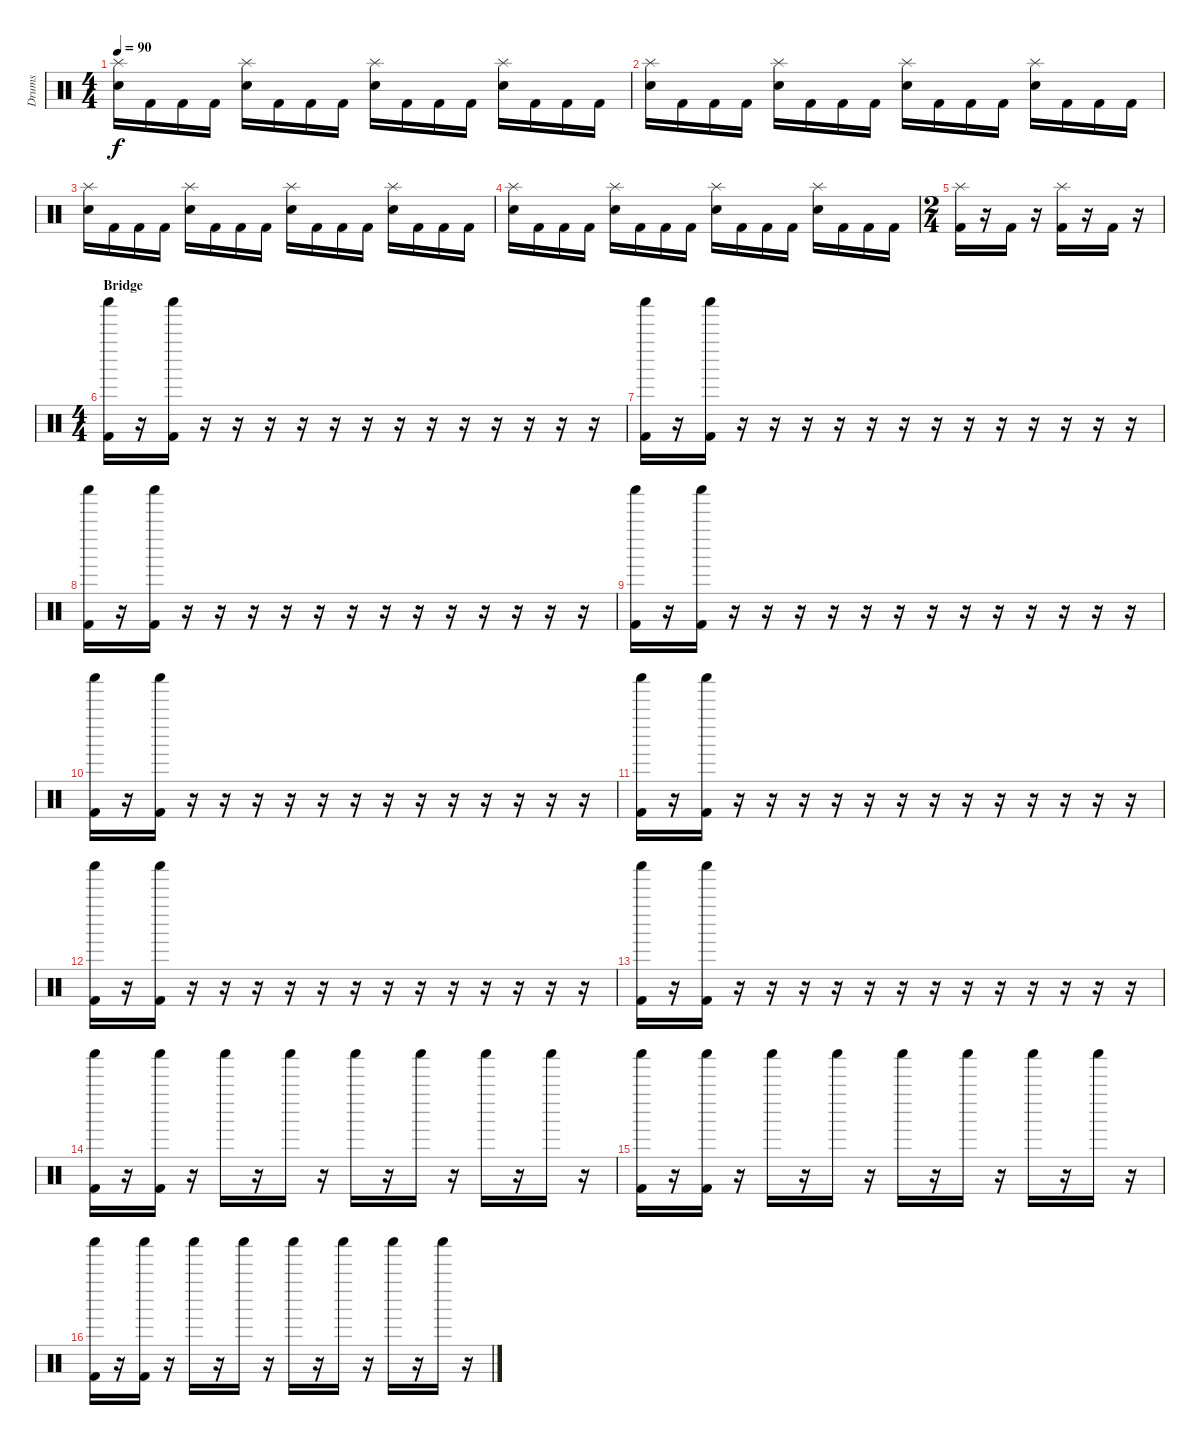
\track ("Drums" "Drums") {instrument percussion}
\staff {score}
\articulation defaults
\ts (4 4)
\tempo 90
\clef neutral
\ks c
("Splash (hit)" "Electric Snare (hit)").16{dy f} "Kick (hit) 2".16 "Kick (hit) 2".16 "Kick (hit) 2".16 ("Splash (hit)" "Electric Snare (hit)").16 "Kick (hit) 2".16 "Kick (hit) 2".16 "Kick (hit) 2".16 ("Splash (hit)" "Electric Snare (hit)").16 "Kick (hit) 2".16 "Kick (hit) 2".16 "Kick (hit) 2".16 ("Splash (hit)" "Electric Snare (hit)").16 "Kick (hit) 2".16 "Kick (hit) 2".16 "Kick (hit) 2".16 |
("Splash (hit)" "Electric Snare (hit)").16 "Kick (hit) 2".16 "Kick (hit) 2".16 "Kick (hit) 2".16 ("Splash (hit)" "Electric Snare (hit)").16 "Kick (hit) 2".16 "Kick (hit) 2".16 "Kick (hit) 2".16 ("Splash (hit)" "Electric Snare (hit)").16 "Kick (hit) 2".16 "Kick (hit) 2".16 "Kick (hit) 2".16 ("Splash (hit)" "Electric Snare (hit)").16 "Kick (hit) 2".16 "Kick (hit) 2".16 "Kick (hit) 2".16 |
("Splash (hit)" "Electric Snare (hit)").16 "Kick (hit) 2".16 "Kick (hit) 2".16 "Kick (hit) 2".16 ("Splash (hit)" "Electric Snare (hit)").16 "Kick (hit) 2".16 "Kick (hit) 2".16 "Kick (hit) 2".16 ("Splash (hit)" "Electric Snare (hit)").16 "Kick (hit) 2".16 "Kick (hit) 2".16 "Kick (hit) 2".16 ("Splash (hit)" "Electric Snare (hit)").16 "Kick (hit) 2".16 "Kick (hit) 2".16 "Kick (hit) 2".16 |
("Splash (hit)" "Electric Snare (hit)").16 "Kick (hit) 2".16 "Kick (hit) 2".16 "Kick (hit) 2".16 ("Splash (hit)" "Electric Snare (hit)").16 "Kick (hit) 2".16 "Kick (hit) 2".16 "Kick (hit) 2".16 ("Splash (hit)" "Electric Snare (hit)").16 "Kick (hit) 2".16 "Kick (hit) 2".16 "Kick (hit) 2".16 ("Splash (hit)" "Electric Snare (hit)").16 "Kick (hit) 2".16 "Kick (hit) 2".16 "Kick (hit) 2".16 |
\ts (2 4)
("Splash (hit)" "Kick (hit) 2").16 r.16 "Kick (hit) 2".16 r.16 ("Splash (hit)" "Kick (hit) 2").16 r.16 "Kick (hit) 2".16 r.16 |
\ts (4 4)
\section ("" "Bridge")
("Shaker (hit)" "Kick (hit) 2").16 r.16 ("Shaker (hit)" "Kick (hit) 2").16 r.16 r.16 r.16 r.16 r.16 r.16 r.16 r.16 r.16 r.16 r.16 r.16 r.16 |
("Shaker (hit)" "Kick (hit) 2").16 r.16 ("Shaker (hit)" "Kick (hit) 2").16 r.16 r.16 r.16 r.16 r.16 r.16 r.16 r.16 r.16 r.16 r.16 r.16 r.16 |
("Shaker (hit)" "Kick (hit) 2").16 r.16 ("Shaker (hit)" "Kick (hit) 2").16 r.16 r.16 r.16 r.16 r.16 r.16 r.16 r.16 r.16 r.16 r.16 r.16 r.16 |
("Shaker (hit)" "Kick (hit) 2").16 r.16 ("Shaker (hit)" "Kick (hit) 2").16 r.16 r.16 r.16 r.16 r.16 r.16 r.16 r.16 r.16 r.16 r.16 r.16 r.16 |
("Shaker (hit)" "Kick (hit) 2").16 r.16 ("Shaker (hit)" "Kick (hit) 2").16 r.16 r.16 r.16 r.16 r.16 r.16 r.16 r.16 r.16 r.16 r.16 r.16 r.16 |
("Shaker (hit)" "Kick (hit) 2").16 r.16 ("Shaker (hit)" "Kick (hit) 2").16 r.16 r.16 r.16 r.16 r.16 r.16 r.16 r.16 r.16 r.16 r.16 r.16 r.16 |
("Shaker (hit)" "Kick (hit) 2").16 r.16 ("Shaker (hit)" "Kick (hit) 2").16 r.16 r.16 r.16 r.16 r.16 r.16 r.16 r.16 r.16 r.16 r.16 r.16 r.16 |
("Shaker (hit)" "Kick (hit) 2").16 r.16 ("Shaker (hit)" "Kick (hit) 2").16 r.16 r.16 r.16 r.16 r.16 r.16 r.16 r.16 r.16 r.16 r.16 r.16 r.16 |
("Shaker (hit)" "Kick (hit) 2").16 r.16 ("Shaker (hit)" "Kick (hit) 2").16 r.16 "Shaker (hit)".16 r.16 "Shaker (hit)".16 r.16 "Shaker (hit)".16 r.16 "Shaker (hit)".16 r.16 "Shaker (hit)".16 r.16 "Shaker (hit)".16 r.16 |
("Shaker (hit)" "Kick (hit) 2").16 r.16 ("Shaker (hit)" "Kick (hit) 2").16 r.16 "Shaker (hit)".16 r.16 "Shaker (hit)".16 r.16 "Shaker (hit)".16 r.16 "Shaker (hit)".16 r.16 "Shaker (hit)".16 r.16 "Shaker (hit)".16 r.16 |
("Shaker (hit)" "Kick (hit) 2").16 r.16 ("Shaker (hit)" "Kick (hit) 2").16 r.16 "Shaker (hit)".16 r.16 "Shaker (hit)".16 r.16 "Shaker (hit)".16 r.16 "Shaker (hit)".16 r.16 "Shaker (hit)".16 r.16 "Shaker (hit)".16 r.16
